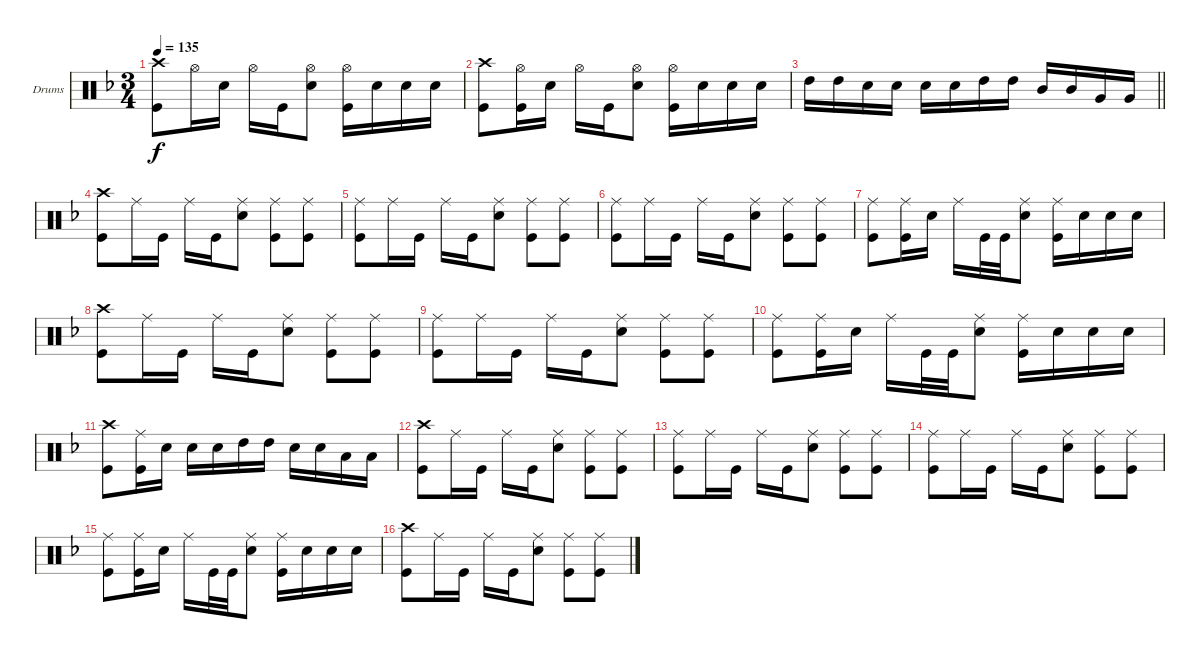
\bracketExtendMode groupsimilarinstruments
\firstSystemTrackNameOrientation horizontal
\otherSystemsTrackNameOrientation horizontal
\track ("drums (Anton Zulganov)" "Drums") {instrument percussion}
\staff {score}
\articulation defaults
\ts (3 4)
\tempo 135
\clef neutral
\ks dminor
("Kick (hit)" "Crash high (hit)").8{dy f} "Hi-Hat (open)".16 "Snare (hit) 2".16 "Hi-Hat (open)".16 "Kick (hit)".16 ("Snare (hit) 2" "Hi-Hat (open)").8 ("Kick (hit)" "Hi-Hat (open)").16 "Snare (hit) 2".16 "Snare (hit) 2".16 "Snare (hit) 2".16 |
("Kick (hit)" "Crash high (hit)").8 ("Kick (hit)" "Hi-Hat (open)").16 "Snare (hit) 2".16 "Hi-Hat (open)".16 "Kick (hit)".16 ("Snare (hit) 2" "Hi-Hat (open)").8 ("Kick (hit)" "Hi-Hat (open)").16 "Snare (hit) 2".16 "Snare (hit) 2".16 "Snare (hit) 2".16 |
\barLineRight lightlight "High Tom (hit)".16 "High Tom (hit)".16 "Snare (hit) 2".16 "Snare (hit) 2".16 "Snare (hit) 2".16 "Snare (hit) 2".16 "High Tom (hit)".16 "High Tom (hit)".16 "Mid Tom (hit)".16 "Mid Tom (hit)".16 "Very Low Tom (hit)".16 "Very Low Tom (hit)".16
|
\section ("" "")
("Kick (hit)" "Crash high (hit)").8 "Ride (middle)".16 "Kick (hit)".16 "Ride (middle)".16 "Kick (hit)".16 ("Ride (middle)" "Snare (hit) 2").8 ("Ride (middle)" "Kick (hit)").8 ("Kick (hit)" "Ride (middle)").8 |
("Kick (hit)" "Ride (middle)").8 "Ride (middle)".16 "Kick (hit)".16 "Ride (middle)".16 "Kick (hit)".16 ("Ride (middle)" "Snare (hit) 2").8 ("Ride (middle)" "Kick (hit)").8 ("Ride (middle)" "Kick (hit)").8 |
("Kick (hit)" "Ride (middle)").8 "Ride (middle)".16 "Kick (hit)".16 "Ride (middle)".16 "Kick (hit)".16 ("Ride (middle)" "Snare (hit) 2").8 ("Ride (middle)" "Kick (hit)").8 ("Kick (hit)" "Ride (middle)").8 |
("Kick (hit)" "Ride (middle)").8 ("Ride (middle)" "Kick (hit)").16 "Snare (hit) 2".16 "Ride (middle)".16 "Kick (hit)".32 "Kick (hit)".32 ("Ride (middle)" "Snare (hit) 2").8 ("Ride (middle)" "Kick (hit)").16 "Snare (hit) 2".16 "Snare (hit) 2".16 "Snare (hit) 2".16 |
("Kick (hit)" "Crash high (hit)").8 "Ride (middle)".16 "Kick (hit)".16 "Ride (middle)".16 "Kick (hit)".16 ("Ride (middle)" "Snare (hit) 2").8 ("Ride (middle)" "Kick (hit)").8 ("Kick (hit)" "Ride (middle)").8 |
("Kick (hit)" "Ride (middle)").8 "Ride (middle)".16 "Kick (hit)".16 "Ride (middle)".16 "Kick (hit)".16 ("Ride (middle)" "Snare (hit) 2").8 ("Ride (middle)" "Kick (hit)").8 ("Ride (middle)" "Kick (hit)").8 |
("Kick (hit)" "Ride (middle)").8 ("Ride (middle)" "Kick (hit)").16 "Snare (hit) 2".16 "Ride (middle)".16 "Kick (hit)".32 "Kick (hit)".32 ("Ride (middle)" "Snare (hit) 2").8 ("Ride (middle)" "Kick (hit)").16 "Snare (hit) 2".16 "Snare (hit) 2".16 "Snare (hit) 2".16 |
("Kick (hit)" "Crash high (hit)").8 ("Kick (hit)" "Ride (middle)").16 "Snare (hit) 2".16 "Snare (hit) 2".16 "Snare (hit) 2".16 "High Tom (hit)".16 "High Tom (hit)".16 "Snare (hit) 2".16 "Snare (hit) 2".16 "Low Tom (hit)".16 "Low Tom (hit)".16 |
("Kick (hit)" "Crash high (hit)").8 "Ride (middle)".16 "Kick (hit)".16 "Ride (middle)".16 "Kick (hit)".16 ("Ride (middle)" "Snare (hit) 2").8 ("Ride (middle)" "Kick (hit)").8 ("Kick (hit)" "Ride (middle)").8 |
("Kick (hit)" "Ride (middle)").8 "Ride (middle)".16 "Kick (hit)".16 "Ride (middle)".16 "Kick (hit)".16 ("Ride (middle)" "Snare (hit) 2").8 ("Ride (middle)" "Kick (hit)").8 ("Ride (middle)" "Kick (hit)").8 |
("Kick (hit)" "Ride (middle)").8 "Ride (middle)".16 "Kick (hit)".16 "Ride (middle)".16 "Kick (hit)".16 ("Ride (middle)" "Snare (hit) 2").8 ("Ride (middle)" "Kick (hit)").8 ("Kick (hit)" "Ride (middle)").8 |
("Kick (hit)" "Ride (middle)").8 ("Ride (middle)" "Kick (hit)").16 "Snare (hit) 2".16 "Ride (middle)".16 "Kick (hit)".32 "Kick (hit)".32 ("Ride (middle)" "Snare (hit) 2").8 ("Ride (middle)" "Kick (hit)").16 "Snare (hit) 2".16 "Snare (hit) 2".16 "Snare (hit) 2".16 |
("Kick (hit)" "Crash high (hit)").8 "Ride (middle)".16 "Kick (hit)".16 "Ride (middle)".16 "Kick (hit)".16 ("Ride (middle)" "Snare (hit) 2").8 ("Ride (middle)" "Kick (hit)").8 ("Kick (hit)" "Ride (middle)").8
